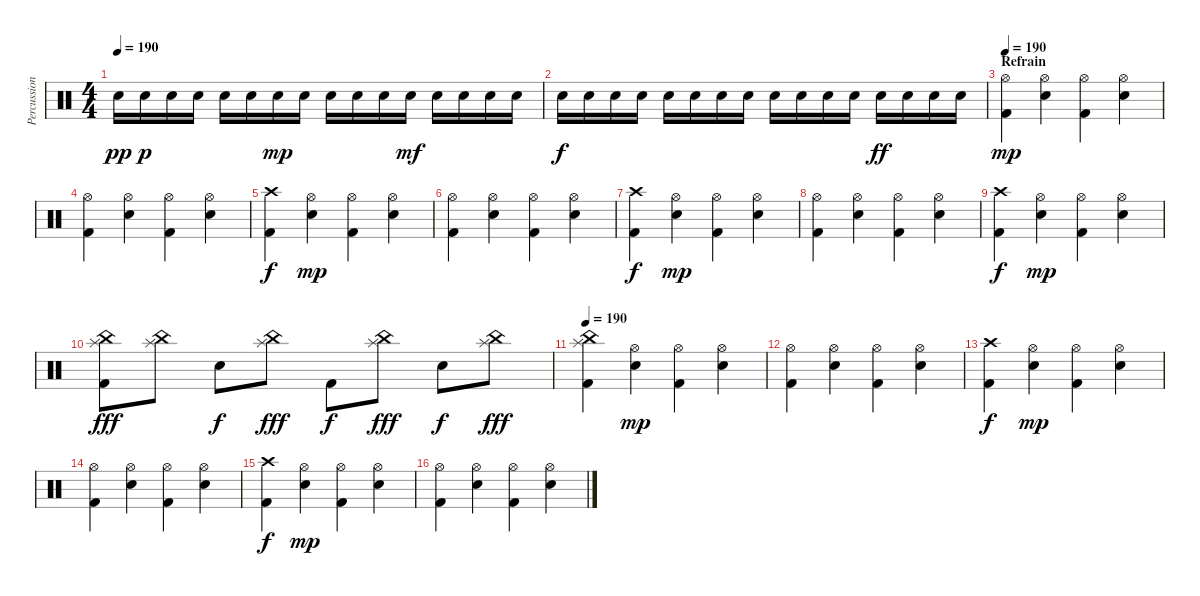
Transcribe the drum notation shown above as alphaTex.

\track ("Percussion" "Percussion") {instrument percussion}
\staff {score}
\articulation defaults
\ts (4 4)
\tempo 190
\clef neutral
\ks c "Electric Snare (hit)".16{dy pp} "Electric Snare (hit)".16{dy p} "Electric Snare (hit)".16 "Electric Snare (hit)".16 "Electric Snare (hit)".16 "Electric Snare (hit)".16 "Electric Snare (hit)".16{dy mp} "Electric Snare (hit)".16 "Electric Snare (hit)".16 "Electric Snare (hit)".16 "Electric Snare (hit)".16 "Electric Snare (hit)".16{dy mf} "Electric Snare (hit)".16 "Electric Snare (hit)".16 "Electric Snare (hit)".16 "Electric Snare (hit)".16
|
"Electric Snare (hit)".16{dy f} "Electric Snare (hit)".16 "Electric Snare (hit)".16 "Electric Snare (hit)".16 "Electric Snare (hit)".16 "Electric Snare (hit)".16 "Electric Snare (hit)".16 "Electric Snare (hit)".16 "Electric Snare (hit)".16 "Electric Snare (hit)".16 "Electric Snare (hit)".16 "Electric Snare (hit)".16 "Electric Snare (hit)".16{dy ff} "Electric Snare (hit)".16 "Electric Snare (hit)".16 "Electric Snare (hit)".16 |
\section ("" "Refrain")
\tempo 190
("Hi-Hat (open)" "Kick (hit) 2").4{dy mp} ("Hi-Hat (open)" "Electric Snare (hit)").4 ("Hi-Hat (open)" "Kick (hit) 2").4 ("Hi-Hat (open)" "Electric Snare (hit)").4 |
("Hi-Hat (open)" "Kick (hit) 2").4 ("Hi-Hat (open)" "Electric Snare (hit)").4 ("Hi-Hat (open)" "Kick (hit) 2").4 ("Hi-Hat (open)" "Electric Snare (hit)").4 |
("Crash high (hit)" "Kick (hit) 2").4{dy f} ("Hi-Hat (open)" "Electric Snare (hit)").4{dy mp} ("Hi-Hat (open)" "Kick (hit) 2").4 ("Hi-Hat (open)" "Electric Snare (hit)").4 |
("Hi-Hat (open)" "Kick (hit) 2").4 ("Hi-Hat (open)" "Electric Snare (hit)").4 ("Hi-Hat (open)" "Kick (hit) 2").4 ("Hi-Hat (open)" "Electric Snare (hit)").4 |
("Crash high (hit)" "Kick (hit) 2").4{dy f} ("Hi-Hat (open)" "Electric Snare (hit)").4{dy mp} ("Hi-Hat (open)" "Kick (hit) 2").4 ("Hi-Hat (open)" "Electric Snare (hit)").4 |
("Hi-Hat (open)" "Kick (hit) 2").4 ("Hi-Hat (open)" "Electric Snare (hit)").4 ("Hi-Hat (open)" "Kick (hit) 2").4 ("Hi-Hat (open)" "Electric Snare (hit)").4 |
("Crash high (hit)" "Kick (hit) 2").4{dy f} ("Hi-Hat (open)" "Electric Snare (hit)").4{dy mp} ("Hi-Hat (open)" "Kick (hit) 2").4 ("Hi-Hat (open)" "Electric Snare (hit)").4 |
("China (hit)" "Splash (hit)" "Kick (hit) 2").8{dy fff} ("China (hit)" "Splash (hit)").8 "Electric Snare (hit)".8{dy f} ("China (hit)" "Splash (hit)").8{dy fff} "Kick (hit) 2".8{dy f} ("China (hit)" "Splash (hit)").8{dy fff} "Electric Snare (hit)".8{dy f} ("China (hit)" "Splash (hit)").8{dy fff} |
\tempo 190
("China (hit)" "Splash (hit)" "Kick (hit) 2").4 ("Hi-Hat (open)" "Electric Snare (hit)").4{dy mp} ("Hi-Hat (open)" "Kick (hit) 2").4 ("Hi-Hat (open)" "Electric Snare (hit)").4 |
("Hi-Hat (open)" "Kick (hit) 2").4 ("Hi-Hat (open)" "Electric Snare (hit)").4 ("Hi-Hat (open)" "Kick (hit) 2").4 ("Hi-Hat (open)" "Electric Snare (hit)").4 |
("Crash high (hit)" "Kick (hit) 2").4{dy f} ("Hi-Hat (open)" "Electric Snare (hit)").4{dy mp} ("Hi-Hat (open)" "Kick (hit) 2").4 ("Hi-Hat (open)" "Electric Snare (hit)").4 |
("Hi-Hat (open)" "Kick (hit) 2").4 ("Hi-Hat (open)" "Electric Snare (hit)").4 ("Hi-Hat (open)" "Kick (hit) 2").4 ("Hi-Hat (open)" "Electric Snare (hit)").4 |
("Crash high (hit)" "Kick (hit) 2").4{dy f} ("Hi-Hat (open)" "Electric Snare (hit)").4{dy mp} ("Hi-Hat (open)" "Kick (hit) 2").4 ("Hi-Hat (open)" "Electric Snare (hit)").4 |
("Hi-Hat (open)" "Kick (hit) 2").4 ("Hi-Hat (open)" "Electric Snare (hit)").4 ("Hi-Hat (open)" "Kick (hit) 2").4 ("Hi-Hat (open)" "Electric Snare (hit)").4
